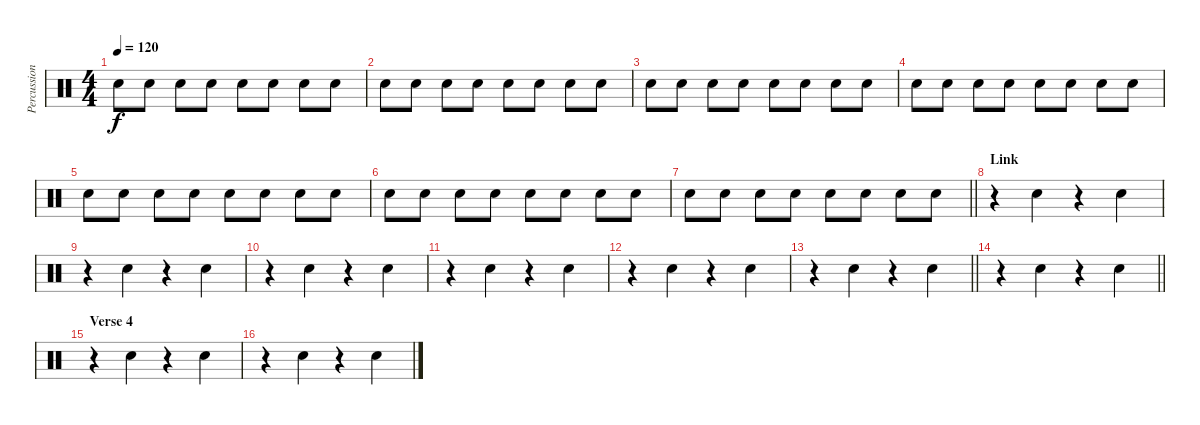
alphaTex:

\track ("Percussion" "Percussion") {instrument percussion}
\staff {score}
\articulation defaults
\ts (4 4)
\tempo 120
\clef neutral
\ks c "Snare (hit) 2".8{dy f} "Snare (hit) 2".8 "Snare (hit) 2".8 "Snare (hit) 2".8 "Snare (hit) 2".8 "Snare (hit) 2".8 "Snare (hit) 2".8 "Snare (hit) 2".8
|
"Snare (hit) 2".8 "Snare (hit) 2".8 "Snare (hit) 2".8 "Snare (hit) 2".8 "Snare (hit) 2".8 "Snare (hit) 2".8 "Snare (hit) 2".8 "Snare (hit) 2".8 |
"Snare (hit) 2".8 "Snare (hit) 2".8 "Snare (hit) 2".8 "Snare (hit) 2".8 "Snare (hit) 2".8 "Snare (hit) 2".8 "Snare (hit) 2".8 "Snare (hit) 2".8 |
"Snare (hit) 2".8 "Snare (hit) 2".8 "Snare (hit) 2".8 "Snare (hit) 2".8 "Snare (hit) 2".8 "Snare (hit) 2".8 "Snare (hit) 2".8 "Snare (hit) 2".8 |
"Snare (hit) 2".8 "Snare (hit) 2".8 "Snare (hit) 2".8 "Snare (hit) 2".8 "Snare (hit) 2".8 "Snare (hit) 2".8 "Snare (hit) 2".8 "Snare (hit) 2".8 |
"Snare (hit) 2".8 "Snare (hit) 2".8 "Snare (hit) 2".8 "Snare (hit) 2".8 "Snare (hit) 2".8 "Snare (hit) 2".8 "Snare (hit) 2".8 "Snare (hit) 2".8 |
\barLineRight lightlight "Snare (hit) 2".8 "Snare (hit) 2".8 "Snare (hit) 2".8 "Snare (hit) 2".8 "Snare (hit) 2".8 "Snare (hit) 2".8 "Snare (hit) 2".8 "Snare (hit) 2".8
|
\section ("" "Link")
r.4{volume 10} "Snare (hit) 2".4 r.4 "Snare (hit) 2".4 |
r.4 "Snare (hit) 2".4 r.4 "Snare (hit) 2".4 |
r.4 "Snare (hit) 2".4 r.4 "Snare (hit) 2".4 |
r.4 "Snare (hit) 2".4 r.4 "Snare (hit) 2".4 |
r.4 "Snare (hit) 2".4 r.4 "Snare (hit) 2".4 |
\barLineRight lightlight
r.4 "Snare (hit) 2".4 r.4 "Snare (hit) 2".4 |
\barLineRight lightlight
r.4 "Snare (hit) 2".4 r.4 "Snare (hit) 2".4 |
\section ("" "Verse 4")
r.4 "Snare (hit) 2".4 r.4 "Snare (hit) 2".4 |
r.4 "Snare (hit) 2".4 r.4 "Snare (hit) 2".4
